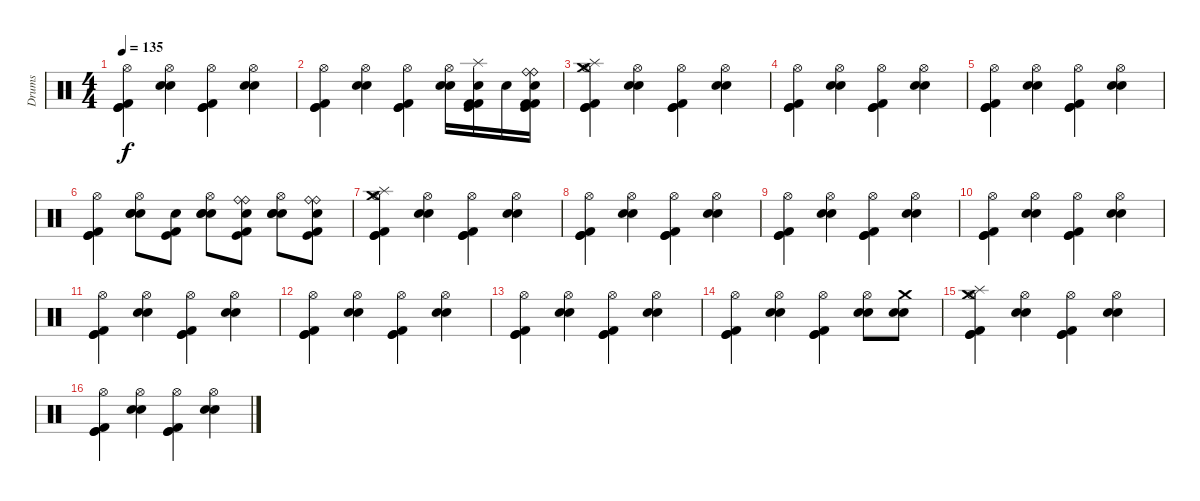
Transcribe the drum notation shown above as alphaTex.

\track ("Drums" "Drums") {instrument percussion}
\staff {score}
\articulation defaults
\ts (4 4)
\tempo 135
\clef neutral
\ks c
("Hi-Hat (open)" "Kick (hit)" "Kick (hit) 2" "Kick (hit)").4{dy f} ("Hi-Hat (open)" "Snare (hit) 2" "Snare (hit) 2").4 ("Hi-Hat (open)" "Kick (hit)" "Kick (hit) 2" "Kick (hit)").4 ("Hi-Hat (open)" "Snare (hit) 2" "Snare (hit) 2").4 |
("Hi-Hat (open)" "Kick (hit)" "Kick (hit) 2" "Kick (hit)").4 ("Hi-Hat (open)" "Snare (hit) 2" "Snare (hit) 2").4 ("Hi-Hat (open)" "Kick (hit)" "Kick (hit) 2" "Kick (hit)").4 ("Hi-Hat (open)" "Snare (hit) 2" "Snare (hit) 2").16 ("Splash (hit)" "Electric Snare (hit)" "Kick (hit)" "Kick (hit) 2" "Kick (hit) 2").16 "Snare (hit) 2".16 ("Ride (bell)" "Ride (bell)" "Electric Snare (hit)" "Kick (hit)" "Kick (hit) 2" "Kick (hit) 2").16 |
("Hi-Hat (open)" "Kick (hit)" "Kick (hit) 2" "Kick (hit)" "Splash (hit)" "Crash medium (hit)").4 ("Hi-Hat (open)" "Snare (hit) 2" "Snare (hit) 2").4 ("Hi-Hat (open)" "Kick (hit)" "Kick (hit) 2" "Kick (hit)").4 ("Hi-Hat (open)" "Snare (hit) 2" "Snare (hit) 2").4 |
("Hi-Hat (open)" "Kick (hit)" "Kick (hit) 2" "Kick (hit)").4 ("Hi-Hat (open)" "Snare (hit) 2" "Snare (hit) 2").4 ("Hi-Hat (open)" "Kick (hit)" "Kick (hit) 2" "Kick (hit)").4 ("Hi-Hat (open)" "Snare (hit) 2" "Snare (hit) 2").4 |
("Hi-Hat (open)" "Kick (hit)" "Kick (hit) 2" "Kick (hit)").4 ("Hi-Hat (open)" "Snare (hit) 2" "Snare (hit) 2").4 ("Hi-Hat (open)" "Kick (hit)" "Kick (hit) 2" "Kick (hit)").4 ("Hi-Hat (open)" "Snare (hit) 2" "Snare (hit) 2").4 |
("Hi-Hat (open)" "Kick (hit)" "Kick (hit) 2" "Kick (hit)").4 ("Hi-Hat (open)" "Snare (hit) 2" "Snare (hit) 2" "Snare (hit) 2").8 ("Kick (hit) 2" "Kick (hit)" "Snare (hit) 2").8 ("Hi-Hat (open)" "Snare (hit) 2" "Snare (hit) 2" "Snare (hit) 2").8 ("Kick (hit) 2" "Kick (hit)" "Ride (bell)" "Snare (hit) 2" "Ride (bell)").8 ("Hi-Hat (open)" "Snare (hit) 2" "Snare (hit) 2" "Snare (hit) 2").8 ("Kick (hit) 2" "Kick (hit)" "Ride (bell)" "Snare (hit) 2" "Ride (bell)").8 |
("Hi-Hat (open)" "Kick (hit)" "Kick (hit) 2" "Kick (hit)" "Splash (hit)" "Crash medium (hit)").4 ("Hi-Hat (open)" "Snare (hit) 2" "Snare (hit) 2").4 ("Hi-Hat (open)" "Kick (hit)" "Kick (hit) 2" "Kick (hit)").4 ("Hi-Hat (open)" "Snare (hit) 2" "Snare (hit) 2").4 |
("Hi-Hat (open)" "Kick (hit)" "Kick (hit) 2" "Kick (hit)").4 ("Hi-Hat (open)" "Snare (hit) 2" "Snare (hit) 2").4 ("Hi-Hat (open)" "Kick (hit)" "Kick (hit) 2" "Kick (hit)").4 ("Hi-Hat (open)" "Snare (hit) 2" "Snare (hit) 2").4 |
("Hi-Hat (open)" "Kick (hit)" "Kick (hit) 2" "Kick (hit)").4 ("Hi-Hat (open)" "Snare (hit) 2" "Snare (hit) 2").4 ("Hi-Hat (open)" "Kick (hit)" "Kick (hit) 2" "Kick (hit)").4 ("Hi-Hat (open)" "Snare (hit) 2" "Snare (hit) 2").4 |
("Hi-Hat (open)" "Kick (hit)" "Kick (hit) 2" "Kick (hit)").4 ("Hi-Hat (open)" "Snare (hit) 2" "Snare (hit) 2").4 ("Hi-Hat (open)" "Kick (hit)" "Kick (hit) 2" "Kick (hit)").4 ("Hi-Hat (open)" "Snare (hit) 2" "Snare (hit) 2").4 |
("Hi-Hat (open)" "Kick (hit)" "Kick (hit) 2" "Kick (hit)").4 ("Hi-Hat (open)" "Snare (hit) 2" "Snare (hit) 2").4 ("Hi-Hat (open)" "Kick (hit)" "Kick (hit) 2" "Kick (hit)").4 ("Hi-Hat (open)" "Snare (hit) 2" "Snare (hit) 2").4 |
("Hi-Hat (open)" "Kick (hit)" "Kick (hit) 2" "Kick (hit)").4 ("Hi-Hat (open)" "Snare (hit) 2" "Snare (hit) 2").4 ("Hi-Hat (open)" "Kick (hit)" "Kick (hit) 2" "Kick (hit)").4 ("Hi-Hat (open)" "Snare (hit) 2" "Snare (hit) 2").4 |
("Hi-Hat (open)" "Kick (hit)" "Kick (hit) 2" "Kick (hit)").4 ("Hi-Hat (open)" "Snare (hit) 2" "Snare (hit) 2").4 ("Hi-Hat (open)" "Kick (hit)" "Kick (hit) 2" "Kick (hit)").4 ("Hi-Hat (open)" "Snare (hit) 2" "Snare (hit) 2").4 |
("Hi-Hat (open)" "Kick (hit)" "Kick (hit) 2" "Kick (hit)").4 ("Hi-Hat (open)" "Snare (hit) 2" "Snare (hit) 2").4 ("Hi-Hat (open)" "Kick (hit)" "Kick (hit) 2" "Kick (hit)").4 ("Hi-Hat (open)" "Snare (hit) 2" "Snare (hit) 2").8 ("Crash medium (hit)" "Snare (hit) 2" "Snare (hit) 2").8 |
("Hi-Hat (open)" "Kick (hit)" "Kick (hit) 2" "Kick (hit)" "Splash (hit)" "Crash medium (hit)").4 ("Hi-Hat (open)" "Snare (hit) 2" "Snare (hit) 2").4 ("Hi-Hat (open)" "Kick (hit)" "Kick (hit) 2" "Kick (hit)").4 ("Hi-Hat (open)" "Snare (hit) 2" "Snare (hit) 2").4 |
("Hi-Hat (open)" "Kick (hit)" "Kick (hit) 2" "Kick (hit)").4 ("Hi-Hat (open)" "Snare (hit) 2" "Snare (hit) 2").4 ("Hi-Hat (open)" "Kick (hit)" "Kick (hit) 2" "Kick (hit)").4 ("Hi-Hat (open)" "Snare (hit) 2" "Snare (hit) 2").4
